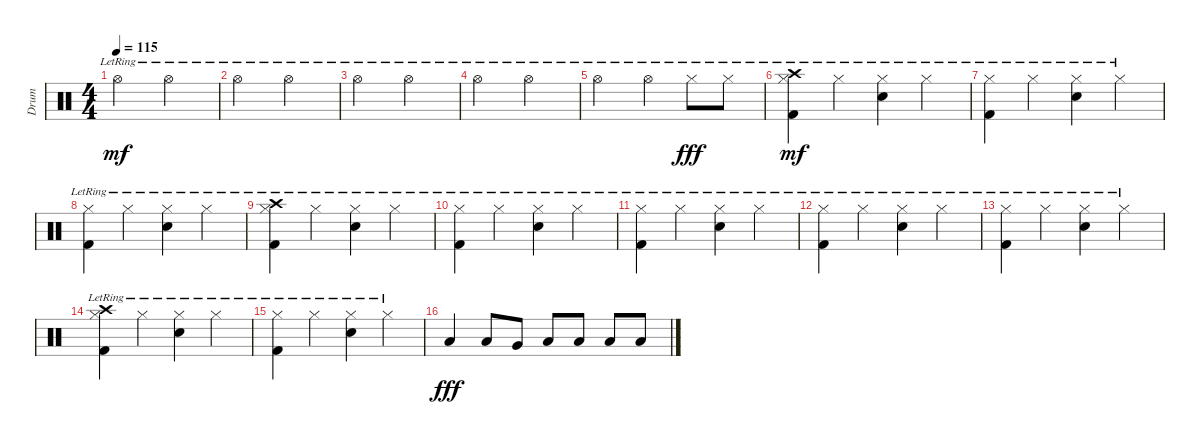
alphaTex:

\track ("Drum" "Drum") {instrument percussion}
\staff {score}
\articulation defaults
\ts (4 4)
\tempo 115
\clef neutral
\ks c "Hi-Hat (open)"{lr}.2{dy mf} "Hi-Hat (open)"{lr}.2
|
"Hi-Hat (open)"{lr}.2 "Hi-Hat (open)"{lr}.2 |
"Hi-Hat (open)"{lr}.2 "Hi-Hat (open)"{lr}.2 |
"Hi-Hat (open)"{lr}.2 "Hi-Hat (open)"{lr}.2 |
"Hi-Hat (open)"{lr}.2 "Hi-Hat (open)"{lr}.4 "Hi-Hat (closed)"{lr}.8{dy fff} "Hi-Hat (closed)"{lr}.8 |
("Kick (hit) 2"{lr} "Hi-Hat (closed)"{lr} "Crash high (hit)"{lr}).4{dy mf} "Hi-Hat (closed)"{lr}.4 ("Snare (hit) 2"{lr} "Hi-Hat (closed)"{lr}).4 "Hi-Hat (closed)"{lr}.4 |
("Kick (hit) 2"{lr} "Hi-Hat (closed)"{lr}).4 "Hi-Hat (closed)"{lr}.4 ("Snare (hit) 2"{lr} "Hi-Hat (closed)"{lr}).4 "Hi-Hat (closed)"{lr}.4 |
("Kick (hit) 2"{lr} "Hi-Hat (closed)"{lr}).4 "Hi-Hat (closed)"{lr}.4 ("Snare (hit) 2"{lr} "Hi-Hat (closed)"{lr}).4 "Hi-Hat (closed)"{lr}.4 |
("Kick (hit) 2"{lr} "Hi-Hat (closed)"{lr} "Crash high (hit)"{lr}).4 "Hi-Hat (closed)"{lr}.4 ("Snare (hit) 2"{lr} "Hi-Hat (closed)"{lr}).4 "Hi-Hat (closed)"{lr}.4 |
("Kick (hit) 2"{lr} "Hi-Hat (closed)"{lr}).4 "Hi-Hat (closed)"{lr}.4 ("Snare (hit) 2"{lr} "Hi-Hat (closed)"{lr}).4 "Hi-Hat (closed)"{lr}.4 |
("Kick (hit) 2"{lr} "Hi-Hat (closed)"{lr}).4 "Hi-Hat (closed)"{lr}.4 ("Snare (hit) 2"{lr} "Hi-Hat (closed)"{lr}).4 "Hi-Hat (closed)"{lr}.4 |
("Kick (hit) 2"{lr} "Hi-Hat (closed)"{lr}).4 "Hi-Hat (closed)"{lr}.4 ("Snare (hit) 2"{lr} "Hi-Hat (closed)"{lr}).4 "Hi-Hat (closed)"{lr}.4 |
("Kick (hit) 2"{lr} "Hi-Hat (closed)"{lr}).4 "Hi-Hat (closed)"{lr}.4 ("Snare (hit) 2"{lr} "Hi-Hat (closed)"{lr}).4 "Hi-Hat (closed)"{lr}.4 |
("Kick (hit) 2"{lr} "Hi-Hat (closed)"{lr} "Crash high (hit)"{lr}).4 "Hi-Hat (closed)"{lr}.4 ("Snare (hit) 2"{lr} "Hi-Hat (closed)"{lr}).4 "Hi-Hat (closed)"{lr}.4 |
("Kick (hit) 2"{lr} "Hi-Hat (closed)"{lr}).4 "Hi-Hat (closed)"{lr}.4 ("Snare (hit) 2"{lr} "Hi-Hat (closed)"{lr}).4 "Hi-Hat (closed)"{lr}.4 |
"Low Tom (hit)".4{dy fff} "Low Floor Tom (hit)".8 "Very Low Tom (hit)".8 "Low Tom (hit)".8 "Low Tom (hit)".8 "Low Tom (hit)".8 "Low Tom (hit)".8
